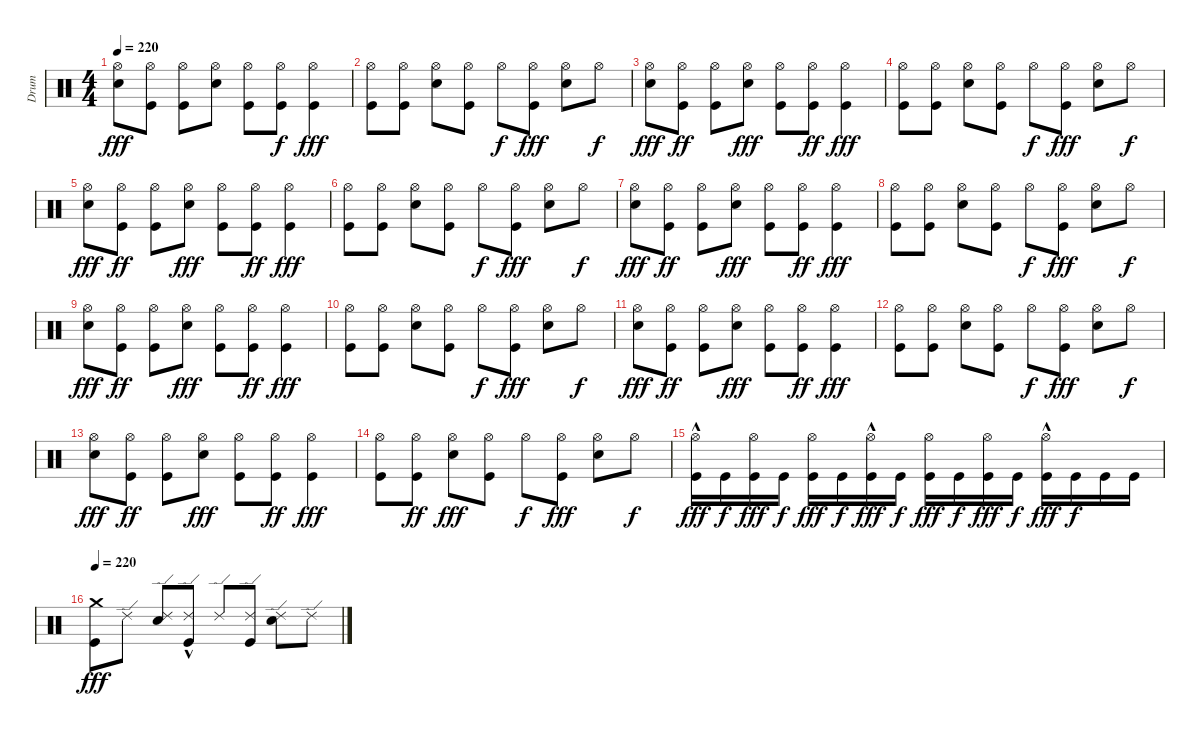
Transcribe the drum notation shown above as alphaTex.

\track ("Drum" "Drum") {instrument percussion}
\staff {score}
\articulation defaults
\ts (4 4)
\tempo 220
\clef neutral
\ks c
("Hi-Hat (open)" "Snare (hit) 2").8{dy fff} ("Hi-Hat (open)" "Kick (hit)").8 ("Hi-Hat (open)" "Kick (hit)").8 ("Hi-Hat (open)" "Snare (hit) 2").8 ("Hi-Hat (open)" "Kick (hit)").8 ("Hi-Hat (open)" "Kick (hit)").8{dy f} ("Hi-Hat (open)" "Kick (hit)").4{dy fff} |
("Hi-Hat (open)" "Kick (hit)").8 ("Hi-Hat (open)" "Kick (hit)").8 ("Hi-Hat (open)" "Snare (hit) 2").8 ("Hi-Hat (open)" "Kick (hit)").8 "Hi-Hat (open)".8{dy f} ("Hi-Hat (open)" "Kick (hit)").8{dy fff} ("Hi-Hat (open)" "Snare (hit) 2").8 "Hi-Hat (open)".8{dy f} |
("Hi-Hat (open)" "Snare (hit) 2").8{dy fff} ("Hi-Hat (open)" "Kick (hit)").8{dy ff} ("Hi-Hat (open)" "Kick (hit)").8 ("Hi-Hat (open)" "Snare (hit) 2").8{dy fff} ("Hi-Hat (open)" "Kick (hit)").8 ("Hi-Hat (open)" "Kick (hit)").8{dy ff} ("Hi-Hat (open)" "Kick (hit)").4{dy fff} |
("Hi-Hat (open)" "Kick (hit)").8 ("Hi-Hat (open)" "Kick (hit)").8 ("Hi-Hat (open)" "Snare (hit) 2").8 ("Hi-Hat (open)" "Kick (hit)").8 "Hi-Hat (open)".8{dy f} ("Hi-Hat (open)" "Kick (hit)").8{dy fff} ("Hi-Hat (open)" "Snare (hit) 2").8 "Hi-Hat (open)".8{dy f} |
("Hi-Hat (open)" "Snare (hit) 2").8{dy fff} ("Hi-Hat (open)" "Kick (hit)").8{dy ff} ("Hi-Hat (open)" "Kick (hit)").8 ("Hi-Hat (open)" "Snare (hit) 2").8{dy fff} ("Hi-Hat (open)" "Kick (hit)").8 ("Hi-Hat (open)" "Kick (hit)").8{dy ff} ("Hi-Hat (open)" "Kick (hit)").4{dy fff} |
("Hi-Hat (open)" "Kick (hit)").8 ("Hi-Hat (open)" "Kick (hit)").8 ("Hi-Hat (open)" "Snare (hit) 2").8 ("Hi-Hat (open)" "Kick (hit)").8 "Hi-Hat (open)".8{dy f} ("Hi-Hat (open)" "Kick (hit)").8{dy fff} ("Hi-Hat (open)" "Snare (hit) 2").8 "Hi-Hat (open)".8{dy f} |
("Hi-Hat (open)" "Snare (hit) 2").8{dy fff} ("Hi-Hat (open)" "Kick (hit)").8{dy ff} ("Hi-Hat (open)" "Kick (hit)").8 ("Hi-Hat (open)" "Snare (hit) 2").8{dy fff} ("Hi-Hat (open)" "Kick (hit)").8 ("Hi-Hat (open)" "Kick (hit)").8{dy ff} ("Hi-Hat (open)" "Kick (hit)").4{dy fff} |
("Hi-Hat (open)" "Kick (hit)").8 ("Hi-Hat (open)" "Kick (hit)").8 ("Hi-Hat (open)" "Snare (hit) 2").8 ("Hi-Hat (open)" "Kick (hit)").8 "Hi-Hat (open)".8{dy f} ("Hi-Hat (open)" "Kick (hit)").8{dy fff} ("Hi-Hat (open)" "Snare (hit) 2").8 "Hi-Hat (open)".8{dy f} |
("Hi-Hat (open)" "Snare (hit) 2").8{dy fff} ("Hi-Hat (open)" "Kick (hit)").8{dy ff} ("Hi-Hat (open)" "Kick (hit)").8 ("Hi-Hat (open)" "Snare (hit) 2").8{dy fff} ("Hi-Hat (open)" "Kick (hit)").8 ("Hi-Hat (open)" "Kick (hit)").8{dy ff} ("Hi-Hat (open)" "Kick (hit)").4{dy fff} |
("Hi-Hat (open)" "Kick (hit)").8 ("Hi-Hat (open)" "Kick (hit)").8 ("Hi-Hat (open)" "Snare (hit) 2").8 ("Hi-Hat (open)" "Kick (hit)").8 "Hi-Hat (open)".8{dy f} ("Hi-Hat (open)" "Kick (hit)").8{dy fff} ("Hi-Hat (open)" "Snare (hit) 2").8 "Hi-Hat (open)".8{dy f} |
("Hi-Hat (open)" "Snare (hit) 2").8{dy fff} ("Hi-Hat (open)" "Kick (hit)").8{dy ff} ("Hi-Hat (open)" "Kick (hit)").8 ("Hi-Hat (open)" "Snare (hit) 2").8{dy fff} ("Hi-Hat (open)" "Kick (hit)").8 ("Hi-Hat (open)" "Kick (hit)").8{dy ff} ("Hi-Hat (open)" "Kick (hit)").4{dy fff} |
("Hi-Hat (open)" "Kick (hit)").8 ("Hi-Hat (open)" "Kick (hit)").8 ("Hi-Hat (open)" "Snare (hit) 2").8 ("Hi-Hat (open)" "Kick (hit)").8 "Hi-Hat (open)".8{dy f} ("Hi-Hat (open)" "Kick (hit)").8{dy fff} ("Hi-Hat (open)" "Snare (hit) 2").8 "Hi-Hat (open)".8{dy f} |
("Hi-Hat (open)" "Snare (hit) 2").8{dy fff} ("Hi-Hat (open)" "Kick (hit)").8{dy ff} ("Hi-Hat (open)" "Kick (hit)").8 ("Hi-Hat (open)" "Snare (hit) 2").8{dy fff} ("Hi-Hat (open)" "Kick (hit)").8 ("Hi-Hat (open)" "Kick (hit)").8{dy ff} ("Hi-Hat (open)" "Kick (hit)").4{dy fff} |
("Hi-Hat (open)" "Kick (hit)").8 ("Hi-Hat (open)" "Kick (hit)").8{dy ff} ("Hi-Hat (open)" "Snare (hit) 2").8{dy fff} ("Hi-Hat (open)" "Kick (hit)").8 "Hi-Hat (open)".8{dy f} ("Hi-Hat (open)" "Kick (hit)").8{dy fff} ("Hi-Hat (open)" "Snare (hit) 2").8 "Hi-Hat (open)".8{dy f} |
("Hi-Hat (open)"{hac} "Kick (hit)").16{dy fff} "Kick (hit)".16{dy f} ("Hi-Hat (open)" "Kick (hit)").16{dy fff} "Kick (hit)".16{dy f} ("Hi-Hat (open)" "Kick (hit)").16{dy fff} "Kick (hit)".16{dy f} ("Hi-Hat (open)"{hac} "Kick (hit)").16{dy fff} "Kick (hit)".16{dy f} ("Hi-Hat (open)" "Kick (hit)").16{dy fff} "Kick (hit)".16{dy f} ("Hi-Hat (open)" "Kick (hit)").16{dy fff} "Kick (hit)".16{dy f} ("Hi-Hat (open)"{hac} "Kick (hit)").16{dy fff} "Kick (hit)".16{dy f} "Kick (hit)".16 "Kick (hit)".16 |
\tempo 220
("Crash medium (hit)" "Kick (hit)").8{dy fff} "Ride (edge) 2".8 ("Ride (edge) 2" "Snare (hit) 2").8 ("Ride (edge) 2"{hac} "Kick (hit)").8 "Ride (edge) 2".8 ("Ride (edge) 2" "Kick (hit)").8 ("Ride (edge) 2" "Snare (hit) 2").8 "Ride (edge) 2".8
